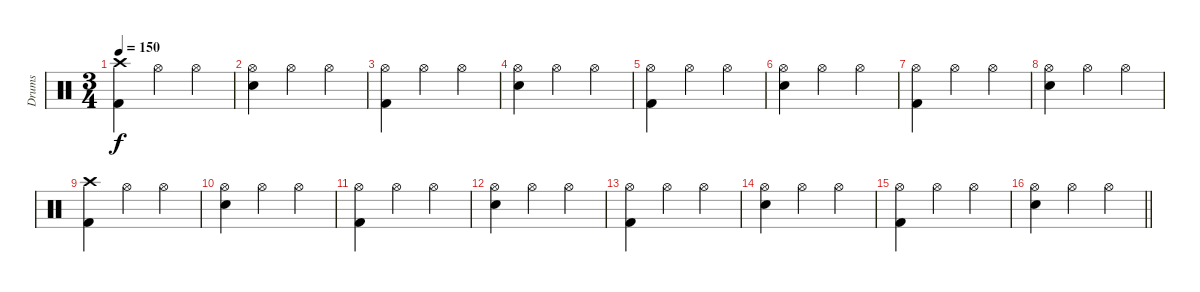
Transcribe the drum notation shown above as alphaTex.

\track ("Drums" "Drums") {instrument percussion}
\staff {score}
\articulation defaults
\ts (3 4)
\tempo 150
\clef neutral
\ks c
("Crash high (hit)" "Kick (hit) 2").4{dy f} "Hi-Hat (open)".4 "Hi-Hat (open)".4 |
("Hi-Hat (open)" "Snare (hit) 2").4 "Hi-Hat (open)".4 "Hi-Hat (open)".4 |
("Hi-Hat (open)" "Kick (hit) 2").4 "Hi-Hat (open)".4 "Hi-Hat (open)".4 |
("Hi-Hat (open)" "Snare (hit) 2").4 "Hi-Hat (open)".4 "Hi-Hat (open)".4 |
("Hi-Hat (open)" "Kick (hit) 2").4 "Hi-Hat (open)".4 "Hi-Hat (open)".4 |
("Hi-Hat (open)" "Snare (hit) 2").4 "Hi-Hat (open)".4 "Hi-Hat (open)".4 |
("Hi-Hat (open)" "Kick (hit) 2").4 "Hi-Hat (open)".4 "Hi-Hat (open)".4 |
("Hi-Hat (open)" "Snare (hit) 2").4 "Hi-Hat (open)".4 "Hi-Hat (open)".4 |
("Crash high (hit)" "Kick (hit) 2").4 "Hi-Hat (open)".4 "Hi-Hat (open)".4 |
("Hi-Hat (open)" "Snare (hit) 2").4 "Hi-Hat (open)".4 "Hi-Hat (open)".4 |
("Hi-Hat (open)" "Kick (hit) 2").4 "Hi-Hat (open)".4 "Hi-Hat (open)".4 |
("Hi-Hat (open)" "Snare (hit) 2").4 "Hi-Hat (open)".4 "Hi-Hat (open)".4 |
("Hi-Hat (open)" "Kick (hit) 2").4 "Hi-Hat (open)".4 "Hi-Hat (open)".4 |
("Hi-Hat (open)" "Snare (hit) 2").4 "Hi-Hat (open)".4 "Hi-Hat (open)".4 |
("Hi-Hat (open)" "Kick (hit) 2").4 "Hi-Hat (open)".4 "Hi-Hat (open)".4 |
\barLineRight lightlight
("Hi-Hat (open)" "Snare (hit) 2").4 "Hi-Hat (open)".4 "Hi-Hat (open)".4
